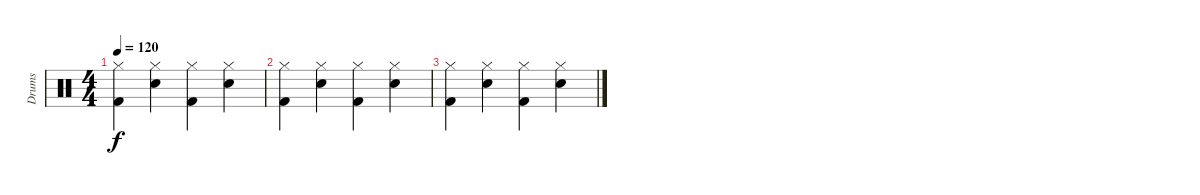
\track ("Drums" "Drums") {instrument percussion}
\staff {score}
\articulation defaults
\ts (4 4)
\tempo 120
\clef neutral
\ks c
("Hi-Hat (closed)" "Kick (hit) 2").4{dy f} ("Hi-Hat (closed)" "Snare (hit) 2").4 ("Hi-Hat (closed)" "Kick (hit) 2").4 ("Hi-Hat (closed)" "Snare (hit) 2").4 |
("Hi-Hat (closed)" "Kick (hit) 2").4 ("Hi-Hat (closed)" "Snare (hit) 2").4 ("Hi-Hat (closed)" "Kick (hit) 2").4 ("Hi-Hat (closed)" "Snare (hit) 2").4 |
("Hi-Hat (closed)" "Kick (hit) 2").4 ("Hi-Hat (closed)" "Snare (hit) 2").4 ("Hi-Hat (closed)" "Kick (hit) 2").4 ("Hi-Hat (closed)" "Snare (hit) 2").4
